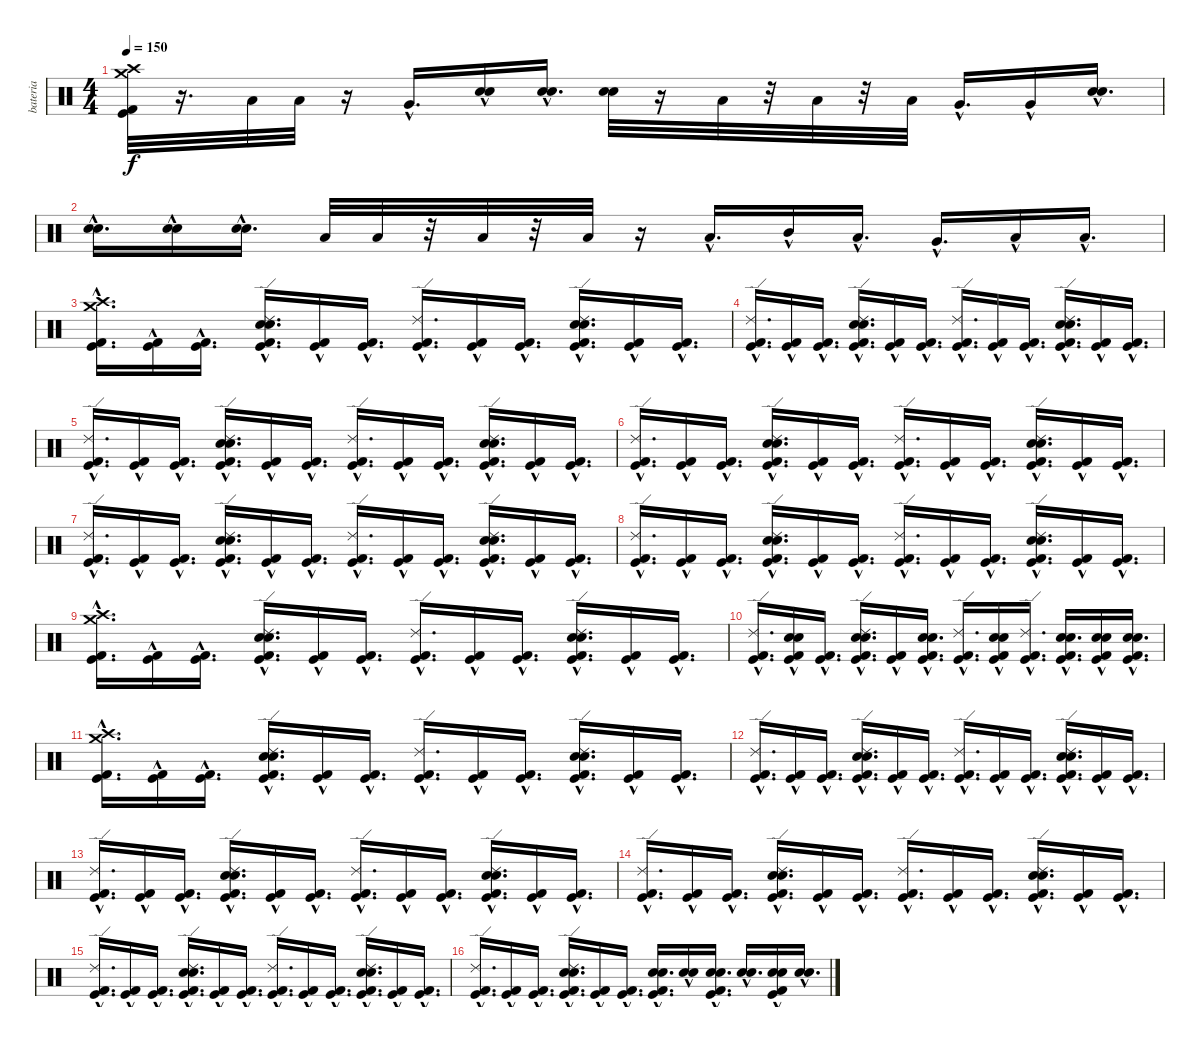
\track ("bateria" "bateria") {instrument percussion}
\staff {score}
\articulation defaults
\ts (4 4)
\tempo 150
\clef neutral
\ks c
("Crash high (hit)" "Crash medium (hit)" "Kick (hit) 2" "Kick (hit)").32{dy f} r.16{d} "Low Tom (hit)".32 "Low Tom (hit)".32 r.16 "Very Low Tom (hit)"{hac}.16{d} ("Snare (hit) 2"{hac} "Electric Snare (hit)"{hac}).16 ("Electric Snare (hit)"{hac} "Snare (hit) 2"{hac}).16{d} ("Electric Snare (hit)" "Snare (hit) 2").32 r.16 "Low Tom (hit)".32 r.32 "Low Tom (hit)".32 r.32 "Low Tom (hit)".32 "Very Low Tom (hit)"{hac}.16{d} "Very Low Tom (hit)"{hac}.16 ("Snare (hit) 2"{hac} "Electric Snare (hit)"{hac}).16{d} |
("Electric Snare (hit)"{hac} "Snare (hit) 2"{hac}).16{d} ("Electric Snare (hit)"{hac} "Snare (hit) 2"{hac}).16 ("Electric Snare (hit)"{hac} "Snare (hit) 2"{hac}).16{d} "Low Tom (hit)".32 "Low Tom (hit)".32 r.32 "Low Tom (hit)".32 r.32 "Low Tom (hit)".32 r.16 "Low Tom (hit)"{hac}.16{d} "Mid Tom (hit)"{hac}.16 "Low Tom (hit)"{hac}.16{d} "Very Low Tom (hit)"{hac}.16{d} "Low Floor Tom (hit)"{hac}.16 "Low Floor Tom (hit)"{hac}.16{d} |
("Crash high (hit)"{hac} "Crash medium (hit)"{hac} "Kick (hit) 2"{hac} "Kick (hit)"{hac}).16{d} ("Kick (hit) 2"{hac} "Kick (hit)"{hac}).16 ("Kick (hit) 2"{hac} "Kick (hit)"{hac}).16{d} ("Ride (edge) 2"{hac} "Snare (hit) 2"{hac} "Electric Snare (hit)"{hac} "Kick (hit) 2"{hac} "Kick (hit)"{hac}).16{d} ("Kick (hit) 2"{hac} "Kick (hit)"{hac}).16 ("Kick (hit) 2"{hac} "Kick (hit)"{hac}).16{d} ("Ride (edge) 2"{hac} "Kick (hit) 2"{hac} "Kick (hit)"{hac}).16{d} ("Kick (hit) 2"{hac} "Kick (hit)"{hac}).16 ("Kick (hit) 2"{hac} "Kick (hit)"{hac}).16{d} ("Ride (edge) 2"{hac} "Electric Snare (hit)"{hac} "Snare (hit) 2"{hac} "Kick (hit) 2"{hac} "Kick (hit)"{hac}).16{d} ("Kick (hit) 2"{hac} "Kick (hit)"{hac}).16 ("Kick (hit) 2"{hac} "Kick (hit)"{hac}).16{d} |
("Ride (edge) 2"{hac} "Kick (hit) 2"{hac} "Kick (hit)"{hac}).16{d} ("Kick (hit) 2"{hac} "Kick (hit)"{hac}).16 ("Kick (hit) 2"{hac} "Kick (hit)"{hac}).16{d} ("Ride (edge) 2"{hac} "Snare (hit) 2"{hac} "Electric Snare (hit)"{hac} "Kick (hit) 2"{hac} "Kick (hit)"{hac}).16{d} ("Kick (hit) 2"{hac} "Kick (hit)"{hac}).16 ("Kick (hit) 2"{hac} "Kick (hit)"{hac}).16{d} ("Ride (edge) 2"{hac} "Kick (hit) 2"{hac} "Kick (hit)"{hac}).16{d} ("Kick (hit) 2"{hac} "Kick (hit)"{hac}).16 ("Kick (hit) 2"{hac} "Kick (hit)"{hac}).16{d} ("Ride (edge) 2"{hac} "Electric Snare (hit)"{hac} "Snare (hit) 2"{hac} "Kick (hit) 2"{hac} "Kick (hit)"{hac}).16{d} ("Kick (hit) 2"{hac} "Kick (hit)"{hac}).16 ("Kick (hit) 2"{hac} "Kick (hit)"{hac}).16{d} |
("Ride (edge) 2"{hac} "Kick (hit) 2"{hac} "Kick (hit)"{hac}).16{d} ("Kick (hit) 2"{hac} "Kick (hit)"{hac}).16 ("Kick (hit) 2"{hac} "Kick (hit)"{hac}).16{d} ("Ride (edge) 2"{hac} "Snare (hit) 2"{hac} "Electric Snare (hit)"{hac} "Kick (hit) 2"{hac} "Kick (hit)"{hac}).16{d} ("Kick (hit) 2"{hac} "Kick (hit)"{hac}).16 ("Kick (hit) 2"{hac} "Kick (hit)"{hac}).16{d} ("Ride (edge) 2"{hac} "Kick (hit) 2"{hac} "Kick (hit)"{hac}).16{d} ("Kick (hit) 2"{hac} "Kick (hit)"{hac}).16 ("Kick (hit) 2"{hac} "Kick (hit)"{hac}).16{d} ("Ride (edge) 2"{hac} "Electric Snare (hit)"{hac} "Snare (hit) 2"{hac} "Kick (hit) 2"{hac} "Kick (hit)"{hac}).16{d} ("Kick (hit) 2"{hac} "Kick (hit)"{hac}).16 ("Kick (hit) 2"{hac} "Kick (hit)"{hac}).16{d} |
("Ride (edge) 2"{hac} "Kick (hit) 2"{hac} "Kick (hit)"{hac}).16{d} ("Kick (hit) 2"{hac} "Kick (hit)"{hac}).16 ("Kick (hit) 2"{hac} "Kick (hit)"{hac}).16{d} ("Ride (edge) 2"{hac} "Snare (hit) 2"{hac} "Electric Snare (hit)"{hac} "Kick (hit) 2"{hac} "Kick (hit)"{hac}).16{d} ("Kick (hit) 2"{hac} "Kick (hit)"{hac}).16 ("Kick (hit) 2"{hac} "Kick (hit)"{hac}).16{d} ("Ride (edge) 2"{hac} "Kick (hit) 2"{hac} "Kick (hit)"{hac}).16{d} ("Kick (hit) 2"{hac} "Kick (hit)"{hac}).16 ("Kick (hit) 2"{hac} "Kick (hit)"{hac}).16{d} ("Ride (edge) 2"{hac} "Electric Snare (hit)"{hac} "Snare (hit) 2"{hac} "Kick (hit) 2"{hac} "Kick (hit)"{hac}).16{d} ("Kick (hit) 2"{hac} "Kick (hit)"{hac}).16 ("Kick (hit) 2"{hac} "Kick (hit)"{hac}).16{d} |
("Ride (edge) 2"{hac} "Kick (hit) 2"{hac} "Kick (hit)"{hac}).16{d} ("Kick (hit) 2"{hac} "Kick (hit)"{hac}).16 ("Kick (hit) 2"{hac} "Kick (hit)"{hac}).16{d} ("Ride (edge) 2"{hac} "Snare (hit) 2"{hac} "Electric Snare (hit)"{hac} "Kick (hit) 2"{hac} "Kick (hit)"{hac}).16{d} ("Kick (hit) 2"{hac} "Kick (hit)"{hac}).16 ("Kick (hit) 2"{hac} "Kick (hit)"{hac}).16{d} ("Ride (edge) 2"{hac} "Kick (hit) 2"{hac} "Kick (hit)"{hac}).16{d} ("Kick (hit) 2"{hac} "Kick (hit)"{hac}).16 ("Kick (hit) 2"{hac} "Kick (hit)"{hac}).16{d} ("Ride (edge) 2"{hac} "Electric Snare (hit)"{hac} "Snare (hit) 2"{hac} "Kick (hit) 2"{hac} "Kick (hit)"{hac}).16{d} ("Kick (hit) 2"{hac} "Kick (hit)"{hac}).16 ("Kick (hit) 2"{hac} "Kick (hit)"{hac}).16{d} |
("Ride (edge) 2"{hac} "Kick (hit) 2"{hac} "Kick (hit)"{hac}).16{d} ("Kick (hit) 2"{hac} "Kick (hit)"{hac}).16 ("Kick (hit) 2"{hac} "Kick (hit)"{hac}).16{d} ("Ride (edge) 2"{hac} "Snare (hit) 2"{hac} "Electric Snare (hit)"{hac} "Kick (hit) 2"{hac} "Kick (hit)"{hac}).16{d} ("Kick (hit) 2"{hac} "Kick (hit)"{hac}).16 ("Kick (hit) 2"{hac} "Kick (hit)"{hac}).16{d} ("Ride (edge) 2"{hac} "Kick (hit) 2"{hac} "Kick (hit)"{hac}).16{d} ("Kick (hit) 2"{hac} "Kick (hit)"{hac}).16 ("Kick (hit) 2"{hac} "Kick (hit)"{hac}).16{d} ("Ride (edge) 2"{hac} "Electric Snare (hit)"{hac} "Snare (hit) 2"{hac} "Kick (hit) 2"{hac} "Kick (hit)"{hac}).16{d} ("Kick (hit) 2"{hac} "Kick (hit)"{hac}).16 ("Kick (hit) 2"{hac} "Kick (hit)"{hac}).16{d} |
("Crash high (hit)"{hac} "Crash medium (hit)"{hac} "Kick (hit) 2"{hac} "Kick (hit)"{hac}).16{d} ("Kick (hit) 2"{hac} "Kick (hit)"{hac}).16 ("Kick (hit) 2"{hac} "Kick (hit)"{hac}).16{d} ("Ride (edge) 2"{hac} "Snare (hit) 2"{hac} "Electric Snare (hit)"{hac} "Kick (hit) 2"{hac} "Kick (hit)"{hac}).16{d} ("Kick (hit) 2"{hac} "Kick (hit)"{hac}).16 ("Kick (hit) 2"{hac} "Kick (hit)"{hac}).16{d} ("Ride (edge) 2"{hac} "Kick (hit) 2"{hac} "Kick (hit)"{hac}).16{d} ("Kick (hit) 2"{hac} "Kick (hit)"{hac}).16 ("Kick (hit) 2"{hac} "Kick (hit)"{hac}).16{d} ("Ride (edge) 2"{hac} "Electric Snare (hit)"{hac} "Snare (hit) 2"{hac} "Kick (hit) 2"{hac} "Kick (hit)"{hac}).16{d} ("Kick (hit) 2"{hac} "Kick (hit)"{hac}).16 ("Kick (hit) 2"{hac} "Kick (hit)"{hac}).16{d} |
("Ride (edge) 2"{hac} "Kick (hit) 2"{hac} "Kick (hit)"{hac}).16{d} ("Electric Snare (hit)"{hac} "Snare (hit) 2"{hac} "Kick (hit) 2"{hac} "Kick (hit)"{hac}).16 ("Kick (hit) 2"{hac} "Kick (hit)"{hac}).16{d} ("Ride (edge) 2"{hac} "Snare (hit) 2"{hac} "Electric Snare (hit)"{hac} "Kick (hit) 2"{hac} "Kick (hit)"{hac}).16{d} ("Kick (hit) 2"{hac} "Kick (hit)"{hac}).16 ("Electric Snare (hit)"{hac} "Snare (hit) 2"{hac} "Kick (hit) 2"{hac} "Kick (hit)"{hac}).16{d} ("Ride (edge) 2"{hac} "Kick (hit) 2"{hac} "Kick (hit)"{hac}).16{d} ("Electric Snare (hit)"{hac} "Snare (hit) 2"{hac} "Kick (hit) 2"{hac} "Kick (hit)"{hac}).16 ("Ride (edge) 2"{hac} "Kick (hit) 2"{hac} "Kick (hit)"{hac}).16{d} ("Electric Snare (hit)"{hac} "Snare (hit) 2"{hac} "Kick (hit) 2"{hac} "Kick (hit)"{hac}).16{d} ("Electric Snare (hit)"{hac} "Snare (hit) 2"{hac} "Kick (hit) 2"{hac} "Kick (hit)"{hac}).16 ("Electric Snare (hit)"{hac} "Snare (hit) 2"{hac} "Kick (hit) 2"{hac} "Kick (hit)"{hac}).16{d} |
("Crash high (hit)"{hac} "Crash medium (hit)"{hac} "Kick (hit) 2"{hac} "Kick (hit)"{hac}).16{d} ("Kick (hit) 2"{hac} "Kick (hit)"{hac}).16 ("Kick (hit) 2"{hac} "Kick (hit)"{hac}).16{d} ("Ride (edge) 2"{hac} "Snare (hit) 2"{hac} "Electric Snare (hit)"{hac} "Kick (hit) 2"{hac} "Kick (hit)"{hac}).16{d} ("Kick (hit) 2"{hac} "Kick (hit)"{hac}).16 ("Kick (hit) 2"{hac} "Kick (hit)"{hac}).16{d} ("Ride (edge) 2"{hac} "Kick (hit) 2"{hac} "Kick (hit)"{hac}).16{d} ("Kick (hit) 2"{hac} "Kick (hit)"{hac}).16 ("Kick (hit) 2"{hac} "Kick (hit)"{hac}).16{d} ("Ride (edge) 2"{hac} "Electric Snare (hit)"{hac} "Snare (hit) 2"{hac} "Kick (hit) 2"{hac} "Kick (hit)"{hac}).16{d} ("Kick (hit) 2"{hac} "Kick (hit)"{hac}).16 ("Kick (hit) 2"{hac} "Kick (hit)"{hac}).16{d} |
("Ride (edge) 2"{hac} "Kick (hit) 2"{hac} "Kick (hit)"{hac}).16{d} ("Kick (hit) 2"{hac} "Kick (hit)"{hac}).16 ("Kick (hit) 2"{hac} "Kick (hit)"{hac}).16{d} ("Ride (edge) 2"{hac} "Snare (hit) 2"{hac} "Electric Snare (hit)"{hac} "Kick (hit) 2"{hac} "Kick (hit)"{hac}).16{d} ("Kick (hit) 2"{hac} "Kick (hit)"{hac}).16 ("Kick (hit) 2"{hac} "Kick (hit)"{hac}).16{d} ("Ride (edge) 2"{hac} "Kick (hit) 2"{hac} "Kick (hit)"{hac}).16{d} ("Kick (hit) 2"{hac} "Kick (hit)"{hac}).16 ("Kick (hit) 2"{hac} "Kick (hit)"{hac}).16{d} ("Ride (edge) 2"{hac} "Electric Snare (hit)"{hac} "Snare (hit) 2"{hac} "Kick (hit) 2"{hac} "Kick (hit)"{hac}).16{d} ("Kick (hit) 2"{hac} "Kick (hit)"{hac}).16 ("Kick (hit) 2"{hac} "Kick (hit)"{hac}).16{d} |
("Ride (edge) 2"{hac} "Kick (hit) 2"{hac} "Kick (hit)"{hac}).16{d} ("Kick (hit) 2"{hac} "Kick (hit)"{hac}).16 ("Kick (hit) 2"{hac} "Kick (hit)"{hac}).16{d} ("Ride (edge) 2"{hac} "Snare (hit) 2"{hac} "Electric Snare (hit)"{hac} "Kick (hit) 2"{hac} "Kick (hit)"{hac}).16{d} ("Kick (hit) 2"{hac} "Kick (hit)"{hac}).16 ("Kick (hit) 2"{hac} "Kick (hit)"{hac}).16{d} ("Ride (edge) 2"{hac} "Kick (hit) 2"{hac} "Kick (hit)"{hac}).16{d} ("Kick (hit) 2"{hac} "Kick (hit)"{hac}).16 ("Kick (hit) 2"{hac} "Kick (hit)"{hac}).16{d} ("Ride (edge) 2"{hac} "Electric Snare (hit)"{hac} "Snare (hit) 2"{hac} "Kick (hit) 2"{hac} "Kick (hit)"{hac}).16{d} ("Kick (hit) 2"{hac} "Kick (hit)"{hac}).16 ("Kick (hit) 2"{hac} "Kick (hit)"{hac}).16{d} |
("Ride (edge) 2"{hac} "Kick (hit) 2"{hac} "Kick (hit)"{hac}).16{d} ("Kick (hit) 2"{hac} "Kick (hit)"{hac}).16 ("Kick (hit) 2"{hac} "Kick (hit)"{hac}).16{d} ("Ride (edge) 2"{hac} "Snare (hit) 2"{hac} "Electric Snare (hit)"{hac} "Kick (hit) 2"{hac} "Kick (hit)"{hac}).16{d} ("Kick (hit) 2"{hac} "Kick (hit)"{hac}).16 ("Kick (hit) 2"{hac} "Kick (hit)"{hac}).16{d} ("Ride (edge) 2"{hac} "Kick (hit) 2"{hac} "Kick (hit)"{hac}).16{d} ("Kick (hit) 2"{hac} "Kick (hit)"{hac}).16 ("Kick (hit) 2"{hac} "Kick (hit)"{hac}).16{d} ("Ride (edge) 2"{hac} "Electric Snare (hit)"{hac} "Snare (hit) 2"{hac} "Kick (hit) 2"{hac} "Kick (hit)"{hac}).16{d} ("Kick (hit) 2"{hac} "Kick (hit)"{hac}).16 ("Kick (hit) 2"{hac} "Kick (hit)"{hac}).16{d} |
("Ride (edge) 2"{hac} "Kick (hit) 2"{hac} "Kick (hit)"{hac}).16{d} ("Kick (hit) 2"{hac} "Kick (hit)"{hac}).16 ("Kick (hit) 2"{hac} "Kick (hit)"{hac}).16{d} ("Ride (edge) 2"{hac} "Snare (hit) 2"{hac} "Electric Snare (hit)"{hac} "Kick (hit) 2"{hac} "Kick (hit)"{hac}).16{d} ("Kick (hit) 2"{hac} "Kick (hit)"{hac}).16 ("Kick (hit) 2"{hac} "Kick (hit)"{hac}).16{d} ("Ride (edge) 2"{hac} "Kick (hit) 2"{hac} "Kick (hit)"{hac}).16{d} ("Kick (hit) 2"{hac} "Kick (hit)"{hac}).16 ("Kick (hit) 2"{hac} "Kick (hit)"{hac}).16{d} ("Ride (edge) 2"{hac} "Electric Snare (hit)"{hac} "Snare (hit) 2"{hac} "Kick (hit) 2"{hac} "Kick (hit)"{hac}).16{d} ("Kick (hit) 2"{hac} "Kick (hit)"{hac}).16 ("Kick (hit) 2"{hac} "Kick (hit)"{hac}).16{d} |
("Ride (edge) 2"{hac} "Kick (hit) 2"{hac} "Kick (hit)"{hac}).16{d} ("Kick (hit) 2"{hac} "Kick (hit)"{hac}).16 ("Kick (hit) 2"{hac} "Kick (hit)"{hac}).16{d} ("Ride (edge) 2"{hac} "Snare (hit) 2"{hac} "Electric Snare (hit)"{hac} "Kick (hit) 2"{hac} "Kick (hit)"{hac}).16{d} ("Kick (hit) 2"{hac} "Kick (hit)"{hac}).16 ("Kick (hit) 2"{hac} "Kick (hit)"{hac}).16{d} ("Electric Snare (hit)"{hac} "Snare (hit) 2"{hac} "Kick (hit) 2"{hac} "Kick (hit)"{hac}).16{d} ("Electric Snare (hit)"{hac} "Snare (hit) 2"{hac}).16 ("Electric Snare (hit)"{hac} "Snare (hit) 2"{hac} "Kick (hit) 2"{hac} "Kick (hit)"{hac}).16{d} ("Electric Snare (hit)"{hac} "Snare (hit) 2"{hac}).16{d} ("Electric Snare (hit)"{hac} "Snare (hit) 2"{hac} "Kick (hit) 2"{hac} "Kick (hit)"{hac}).16 ("Electric Snare (hit)"{hac} "Snare (hit) 2"{hac}).16{d}
